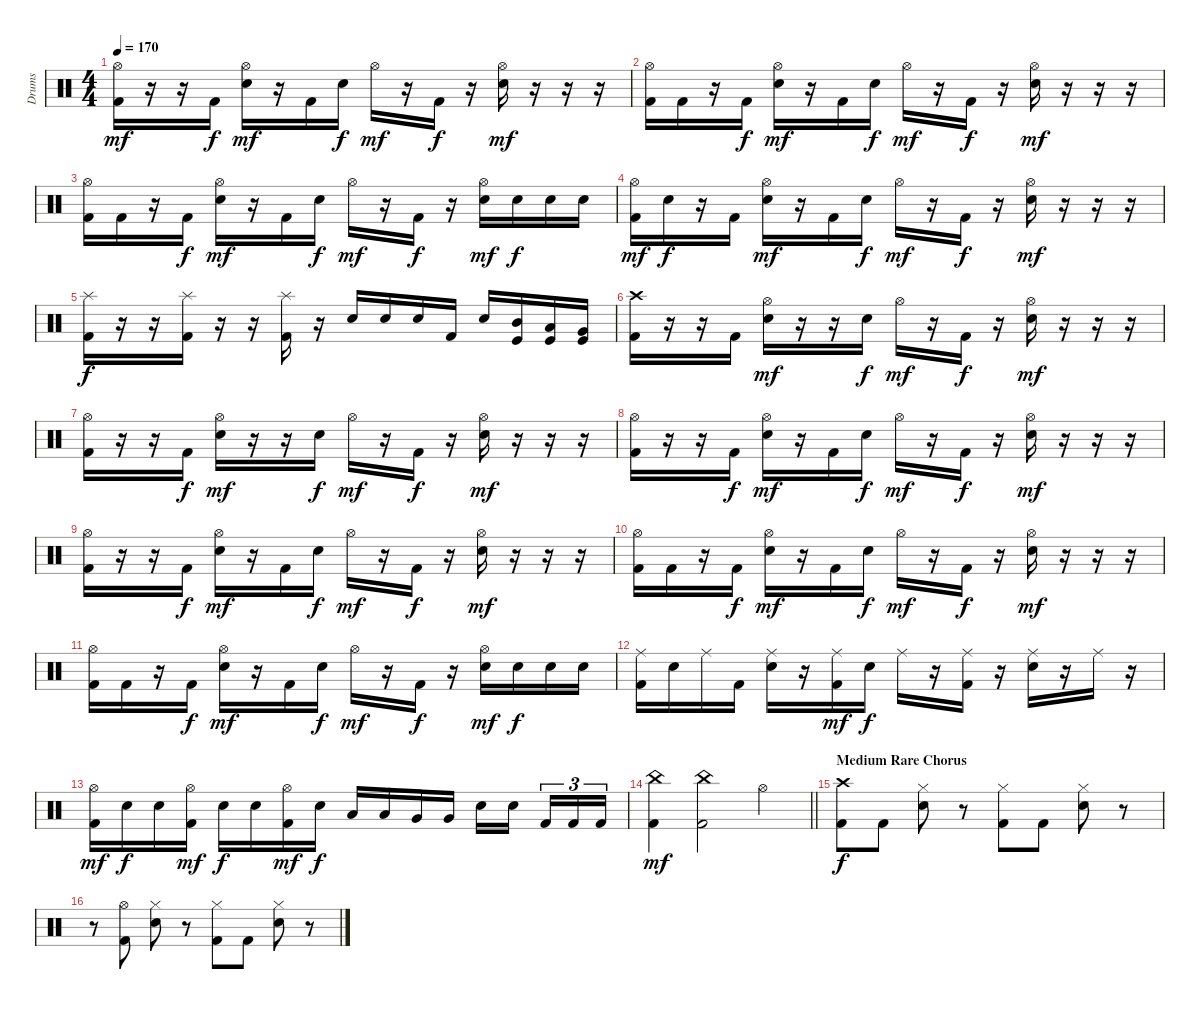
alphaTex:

\track ("Drums" "Drums") {instrument percussion}
\staff {score}
\articulation defaults
\ts (4 4)
\tempo 170
\clef neutral
\ks c
("Hi-Hat (open)" "Kick (hit) 2").16{dy mf} r.16 r.16 "Kick (hit) 2".16{dy f} ("Snare (hit) 2" "Hi-Hat (open)").16{dy mf} r.16 "Kick (hit) 2".16 "Snare (hit) 2".16{dy f} "Hi-Hat (open)".16{dy mf} r.16 "Kick (hit) 2".16{dy f} r.16 ("Snare (hit) 2" "Hi-Hat (open)").16{dy mf} r.16 r.16 r.16 |
("Hi-Hat (open)" "Kick (hit) 2").16 "Kick (hit) 2".16 r.16 "Kick (hit) 2".16{dy f} ("Snare (hit) 2" "Hi-Hat (open)").16{dy mf} r.16 "Kick (hit) 2".16 "Snare (hit) 2".16{dy f} "Hi-Hat (open)".16{dy mf} r.16 "Kick (hit) 2".16{dy f} r.16 ("Snare (hit) 2" "Hi-Hat (open)").16{dy mf} r.16 r.16 r.16 |
("Hi-Hat (open)" "Kick (hit) 2").16 "Kick (hit) 2".16 r.16 "Kick (hit) 2".16{dy f} ("Snare (hit) 2" "Hi-Hat (open)").16{dy mf} r.16 "Kick (hit) 2".16 "Snare (hit) 2".16{dy f} "Hi-Hat (open)".16{dy mf} r.16 "Kick (hit) 2".16{dy f} r.16 ("Snare (hit) 2" "Hi-Hat (open)").16{dy mf} "Snare (hit) 2".16{dy f} "Snare (hit) 2".16 "Snare (hit) 2".16 |
("Hi-Hat (open)" "Kick (hit) 2").16{dy mf} "Snare (hit) 2".16{dy f} r.16 "Kick (hit) 2".16 ("Snare (hit) 2" "Hi-Hat (open)").16{dy mf} r.16 "Kick (hit) 2".16 "Snare (hit) 2".16{dy f} "Hi-Hat (open)".16{dy mf} r.16 "Kick (hit) 2".16{dy f} r.16 ("Snare (hit) 2" "Hi-Hat (open)").16{dy mf} r.16 r.16 r.16 |
("Splash (hit)" "Kick (hit) 2").16{dy f} r.16 r.16 ("Splash (hit)" "Kick (hit) 2").16 r.16 r.16 ("Splash (hit)" "Kick (hit) 2").16 r.16 "Snare (hit) 2".16 "Snare (hit) 2".16 "Snare (hit) 2".16 "Kick (hit) 2".16 "Snare (hit) 2".16 ("Mid Tom (hit)" "Kick (hit)").16 ("Low Tom (hit)" "Kick (hit)").16 ("Very Low Tom (hit)" "Kick (hit)").16 |
("Crash high (hit)" "Kick (hit) 2").16 r.16 r.16 "Kick (hit) 2".16 ("Snare (hit) 2" "Hi-Hat (open)").16{dy mf} r.16 r.16 "Snare (hit) 2".16{dy f} "Hi-Hat (open)".16{dy mf} r.16 "Kick (hit) 2".16{dy f} r.16 ("Snare (hit) 2" "Hi-Hat (open)").16{dy mf} r.16 r.16 r.16 |
("Hi-Hat (open)" "Kick (hit) 2").16 r.16 r.16 "Kick (hit) 2".16{dy f} ("Snare (hit) 2" "Hi-Hat (open)").16{dy mf} r.16 r.16 "Snare (hit) 2".16{dy f} "Hi-Hat (open)".16{dy mf} r.16 "Kick (hit) 2".16{dy f} r.16 ("Snare (hit) 2" "Hi-Hat (open)").16{dy mf} r.16 r.16 r.16 |
("Hi-Hat (open)" "Kick (hit) 2").16 r.16 r.16 "Kick (hit) 2".16{dy f} ("Snare (hit) 2" "Hi-Hat (open)").16{dy mf} r.16 "Kick (hit) 2".16 "Snare (hit) 2".16{dy f} "Hi-Hat (open)".16{dy mf} r.16 "Kick (hit) 2".16{dy f} r.16 ("Snare (hit) 2" "Hi-Hat (open)").16{dy mf} r.16 r.16 r.16 |
("Hi-Hat (open)" "Kick (hit) 2").16 r.16 r.16 "Kick (hit) 2".16{dy f} ("Snare (hit) 2" "Hi-Hat (open)").16{dy mf} r.16 "Kick (hit) 2".16 "Snare (hit) 2".16{dy f} "Hi-Hat (open)".16{dy mf} r.16 "Kick (hit) 2".16{dy f} r.16 ("Snare (hit) 2" "Hi-Hat (open)").16{dy mf} r.16 r.16 r.16 |
("Hi-Hat (open)" "Kick (hit) 2").16 "Kick (hit) 2".16 r.16 "Kick (hit) 2".16{dy f} ("Snare (hit) 2" "Hi-Hat (open)").16{dy mf} r.16 "Kick (hit) 2".16 "Snare (hit) 2".16{dy f} "Hi-Hat (open)".16{dy mf} r.16 "Kick (hit) 2".16{dy f} r.16 ("Snare (hit) 2" "Hi-Hat (open)").16{dy mf} r.16 r.16 r.16 |
("Hi-Hat (open)" "Kick (hit) 2").16 "Kick (hit) 2".16 r.16 "Kick (hit) 2".16{dy f} ("Snare (hit) 2" "Hi-Hat (open)").16{dy mf} r.16 "Kick (hit) 2".16 "Snare (hit) 2".16{dy f} "Hi-Hat (open)".16{dy mf} r.16 "Kick (hit) 2".16{dy f} r.16 ("Snare (hit) 2" "Hi-Hat (open)").16{dy mf} "Snare (hit) 2".16{dy f} "Snare (hit) 2".16 "Snare (hit) 2".16 |
("Ride (middle)" "Kick (hit) 2").16 "Snare (hit) 2".16 "Ride (middle)".16 "Kick (hit) 2".16 ("Snare (hit) 2" "Ride (middle)").16 r.16 ("Ride (middle)" "Kick (hit) 2").16{dy mf} "Snare (hit) 2".16{dy f} "Ride (middle)".16 r.16 ("Ride (middle)" "Kick (hit) 2").16 r.16 ("Snare (hit) 2" "Ride (middle)").16 r.16 "Ride (middle)".16 r.16 |
("Hi-Hat (open)" "Kick (hit) 2").16{dy mf} "Snare (hit) 2".16{dy f} "Snare (hit) 2".16 ("Hi-Hat (open)" "Kick (hit) 2").16{dy mf} "Snare (hit) 2".16{dy f} "Snare (hit) 2".16 ("Hi-Hat (open)" "Kick (hit) 2").16{dy mf} "Snare (hit) 2".16{dy f} "Low Tom (hit)".16 "Low Tom (hit)".16 "Very Low Tom (hit)".16 "Very Low Tom (hit)".16 "Snare (hit) 2".16 "Snare (hit) 2".16{beam splitsecondary} "Kick (hit) 2".16{tu (3 2)} "Kick (hit) 2".16{tu (3 2)} "Kick (hit) 2".16{tu (3 2)} |
\barLineRight lightlight
("China (hit)" "Kick (hit) 2").4{dy mf} ("China (hit)" "Kick (hit) 2").2 "Hi-Hat (open)".4 |
\section ("" "Medium Rare Chorus")
("Crash high (hit)" "Kick (hit) 2").8{dy f} "Kick (hit) 2".8 ("Snare (hit) 2" "Hi-Hat (closed)").8 r.8 ("Hi-Hat (closed)" "Kick (hit) 2").8 "Kick (hit) 2".8 ("Snare (hit) 2" "Hi-Hat (closed)").8 r.8 |
r.8 ("Hi-Hat (open)" "Kick (hit) 2").8 ("Snare (hit) 2" "Hi-Hat (closed)").8 r.8 ("Hi-Hat (closed)" "Kick (hit) 2").8 "Kick (hit) 2".8 ("Snare (hit) 2" "Hi-Hat (closed)").8 r.8
